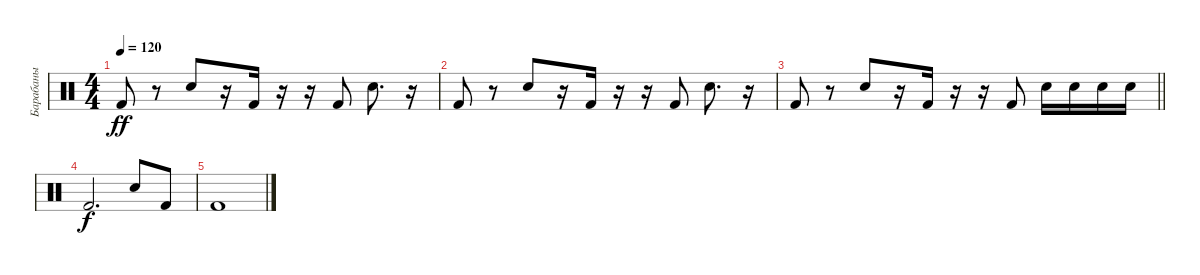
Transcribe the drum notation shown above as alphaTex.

\track ("Барабаны" "Барабаны") {instrument percussion}
\staff {score}
\articulation defaults
\ts (4 4)
\tempo 120
\clef neutral
\ks c "Kick (hit) 2".8{dy ff}
r.8 "Snare (hit) 2".8 r.16 "Kick (hit) 2".16 r.16 r.16 "Kick (hit) 2".8 "Snare (hit) 2".8{d} r.16 |
"Kick (hit) 2".8 r.8 "Snare (hit) 2".8 r.16 "Kick (hit) 2".16 r.16 r.16 "Kick (hit) 2".8 "Snare (hit) 2".8{d} r.16 |
\barLineRight lightlight "Kick (hit) 2".8
r.8 "Snare (hit) 2".8 r.16 "Kick (hit) 2".16 r.16 r.16 "Kick (hit) 2".8 "Electric Snare (hit)".16 "Electric Snare (hit)".16 "Electric Snare (hit)".16 "Electric Snare (hit)".16 |
"Kick (hit) 2".2{d dy f} "Snare (hit) 2".8 "Kick (hit) 2".8 |
"Kick (hit) 2".1
